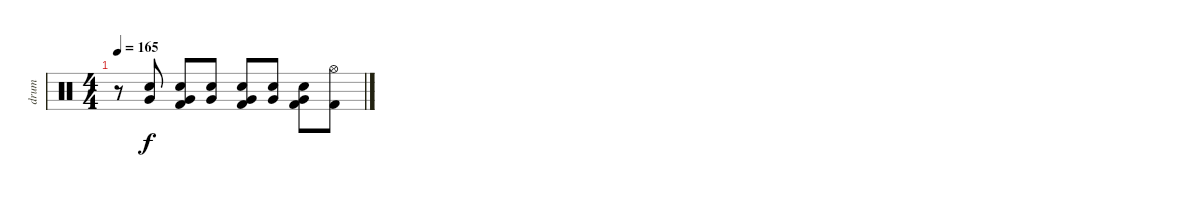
\track ("drum" "drum") {instrument percussion}
\staff {score}
\articulation defaults
\ts (4 4)
\tempo 165
\clef neutral
\ks c
r.8{dy f} ("Very Low Tom (hit)" "Electric Snare (hit)").8 ("Very Low Tom (hit)" "Electric Snare (hit)" "Kick (hit) 2").8 ("Very Low Tom (hit)" "Electric Snare (hit)").8 ("Very Low Tom (hit)" "Electric Snare (hit)" "Kick (hit) 2").8 ("Very Low Tom (hit)" "Electric Snare (hit)").8 ("Very Low Tom (hit)" "Electric Snare (hit)" "Kick (hit) 2").8 ("Hi-Hat (open)" "Kick (hit) 2").8
